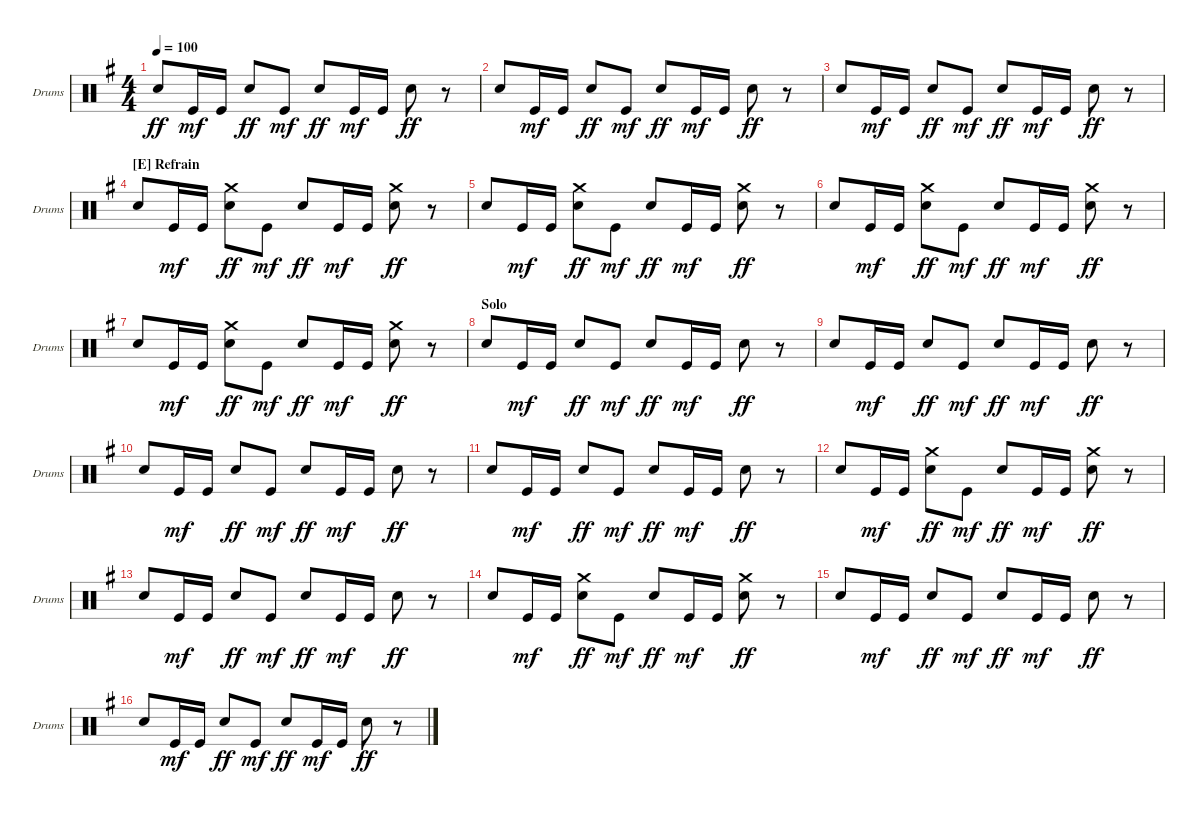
\defaultSystemsLayout 4
\bracketExtendMode groupsimilarinstruments
\singleTrackTrackNamePolicy allsystems
\multiTrackTrackNamePolicy allsystems
\firstSystemTrackNameOrientation horizontal
\otherSystemsTrackNameOrientation horizontal
\track ("Drumkit" "Drums") {instrument percussion}
\staff {score}
\articulation defaults
\ts (4 4)
\tempo 100
\clef neutral
\ks g "Snare (hit) 2".8{dy ff} "Kick (hit)".16{dy mf} "Kick (hit)".16 "Snare (hit) 2".8{dy ff} "Kick (hit)".8{dy mf} "Snare (hit) 2".8{dy ff} "Kick (hit)".16{dy mf} "Kick (hit)".16 "Snare (hit) 2".8{dy ff}
r.8 |
\scale
0.333333 "Snare (hit) 2".8 "Kick (hit)".16{dy mf} "Kick (hit)".16 "Snare (hit) 2".8{dy ff} "Kick (hit)".8{dy mf} "Snare (hit) 2".8{dy ff} "Kick (hit)".16{dy mf} "Kick (hit)".16 "Snare (hit) 2".8{dy ff} r.8 |
\scale
0.333333 "Snare (hit) 2".8 "Kick (hit)".16{dy mf} "Kick (hit)".16 "Snare (hit) 2".8{dy ff} "Kick (hit)".8{dy mf} "Snare (hit) 2".8{dy ff} "Kick (hit)".16{dy mf} "Kick (hit)".16 "Snare (hit) 2".8{dy ff} r.8 |
\section ("E" "Refrain")
\scale
0.333333 "Snare (hit) 2".8 "Kick (hit)".16{dy mf} "Kick (hit)".16 ("Snare (hit) 2" "Crash medium (hit)").8{dy ff} "Kick (hit)".8{dy mf} "Snare (hit) 2".8{dy ff} "Kick (hit)".16{dy mf} "Kick (hit)".16 ("Snare (hit) 2" "Crash medium (hit)").8{dy ff} r.8 |
\scale
0.333333 "Snare (hit) 2".8 "Kick (hit)".16{dy mf} "Kick (hit)".16 ("Snare (hit) 2" "Crash medium (hit)").8{dy ff} "Kick (hit)".8{dy mf} "Snare (hit) 2".8{dy ff} "Kick (hit)".16{dy mf} "Kick (hit)".16 ("Snare (hit) 2" "Crash medium (hit)").8{dy ff} r.8 |
\scale
0.333333 "Snare (hit) 2".8 "Kick (hit)".16{dy mf} "Kick (hit)".16 ("Snare (hit) 2" "Crash medium (hit)").8{dy ff} "Kick (hit)".8{dy mf} "Snare (hit) 2".8{dy ff} "Kick (hit)".16{dy mf} "Kick (hit)".16 ("Snare (hit) 2" "Crash medium (hit)").8{dy ff} r.8 |
\scale
0.333333 "Snare (hit) 2".8 "Kick (hit)".16{dy mf} "Kick (hit)".16 ("Snare (hit) 2" "Crash medium (hit)").8{dy ff} "Kick (hit)".8{dy mf} "Snare (hit) 2".8{dy ff} "Kick (hit)".16{dy mf} "Kick (hit)".16 ("Snare (hit) 2" "Crash medium (hit)").8{dy ff} r.8 |
\section ("" "Solo")
\scale
0.333333 "Snare (hit) 2".8 "Kick (hit)".16{dy mf} "Kick (hit)".16 "Snare (hit) 2".8{dy ff} "Kick (hit)".8{dy mf} "Snare (hit) 2".8{dy ff} "Kick (hit)".16{dy mf} "Kick (hit)".16 "Snare (hit) 2".8{dy ff} r.8 |
\scale
0.333333 "Snare (hit) 2".8 "Kick (hit)".16{dy mf} "Kick (hit)".16 "Snare (hit) 2".8{dy ff} "Kick (hit)".8{dy mf} "Snare (hit) 2".8{dy ff} "Kick (hit)".16{dy mf} "Kick (hit)".16 "Snare (hit) 2".8{dy ff} r.8 |
\scale
0.333333 "Snare (hit) 2".8 "Kick (hit)".16{dy mf} "Kick (hit)".16 "Snare (hit) 2".8{dy ff} "Kick (hit)".8{dy mf} "Snare (hit) 2".8{dy ff} "Kick (hit)".16{dy mf} "Kick (hit)".16 "Snare (hit) 2".8{dy ff} r.8 |
\scale
0.333333 "Snare (hit) 2".8 "Kick (hit)".16{dy mf} "Kick (hit)".16 "Snare (hit) 2".8{dy ff} "Kick (hit)".8{dy mf} "Snare (hit) 2".8{dy ff} "Kick (hit)".16{dy mf} "Kick (hit)".16 "Snare (hit) 2".8{dy ff} r.8 |
\scale
0.333333 "Snare (hit) 2".8 "Kick (hit)".16{dy mf} "Kick (hit)".16 ("Snare (hit) 2" "Crash medium (hit)").8{dy ff} "Kick (hit)".8{dy mf} "Snare (hit) 2".8{dy ff} "Kick (hit)".16{dy mf} "Kick (hit)".16 ("Snare (hit) 2" "Crash medium (hit)").8{dy ff} r.8 |
\scale
0.333333 "Snare (hit) 2".8 "Kick (hit)".16{dy mf} "Kick (hit)".16 "Snare (hit) 2".8{dy ff} "Kick (hit)".8{dy mf} "Snare (hit) 2".8{dy ff} "Kick (hit)".16{dy mf} "Kick (hit)".16 "Snare (hit) 2".8{dy ff} r.8 |
\scale
0.333333 "Snare (hit) 2".8 "Kick (hit)".16{dy mf} "Kick (hit)".16 ("Snare (hit) 2" "Crash medium (hit)").8{dy ff} "Kick (hit)".8{dy mf} "Snare (hit) 2".8{dy ff} "Kick (hit)".16{dy mf} "Kick (hit)".16 ("Snare (hit) 2" "Crash medium (hit)").8{dy ff} r.8 |
\scale
0.333333 "Snare (hit) 2".8 "Kick (hit)".16{dy mf} "Kick (hit)".16 "Snare (hit) 2".8{dy ff} "Kick (hit)".8{dy mf} "Snare (hit) 2".8{dy ff} "Kick (hit)".16{dy mf} "Kick (hit)".16 "Snare (hit) 2".8{dy ff} r.8 |
\scale
0.333333 "Snare (hit) 2".8 "Kick (hit)".16{dy mf} "Kick (hit)".16 "Snare (hit) 2".8{dy ff} "Kick (hit)".8{dy mf} "Snare (hit) 2".8{dy ff} "Kick (hit)".16{dy mf} "Kick (hit)".16 "Snare (hit) 2".8{dy ff} r.8
